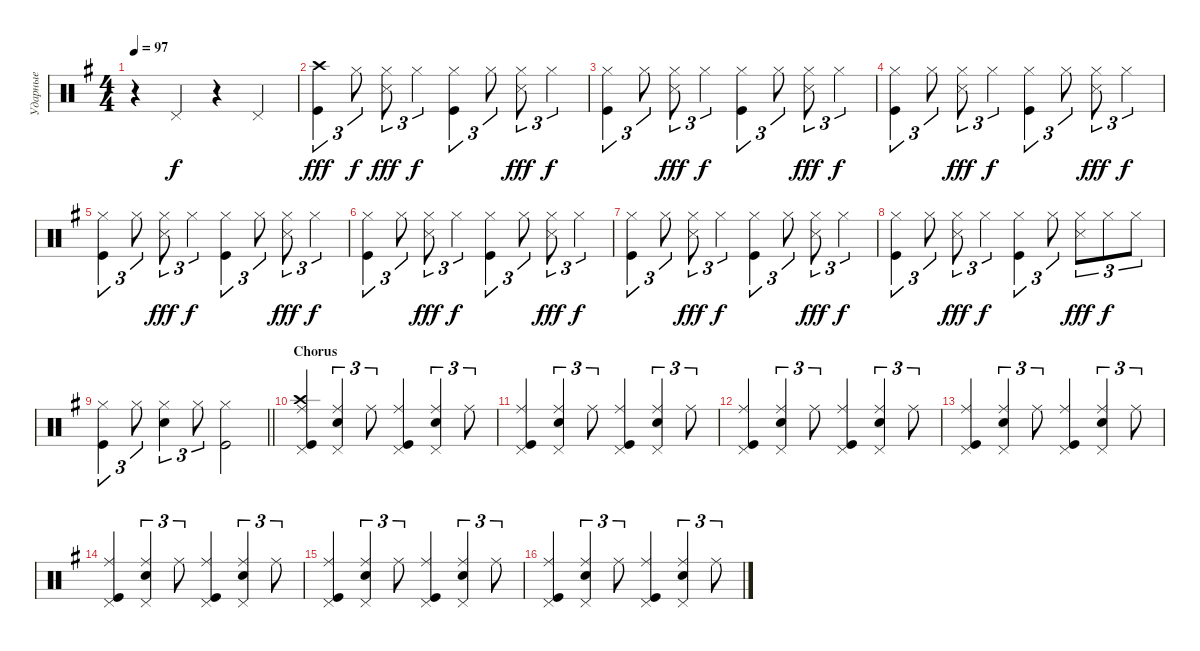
\track ("Ударные" "Ударные") {instrument percussion}
\staff {score}
\articulation defaults
\ts (4 4)
\tempo 97
\clef neutral
\ks eminor
r.4{dy f} "Pedal Hi-Hat (hit)".4 r.4 "Pedal Hi-Hat (hit)".4 |
("Crash high (hit)" "Kick (hit)").4{tu (3 2) dy fff} "Hi-Hat (closed)".8{tu (3 2) dy f} ("Hi-Hat (closed)" "Snare (side stick) 3").8{tu (3 2) dy fff} "Hi-Hat (closed)".4{tu (3 2) dy f} ("Hi-Hat (closed)" "Kick (hit)").4{tu (3 2)} "Hi-Hat (closed)".8{tu (3 2)} ("Hi-Hat (closed)" "Snare (side stick) 3").8{tu (3 2) dy fff} "Hi-Hat (closed)".4{tu (3 2) dy f} |
("Hi-Hat (closed)" "Kick (hit)").4{tu (3 2)} "Hi-Hat (closed)".8{tu (3 2)} ("Hi-Hat (closed)" "Snare (side stick) 3").8{tu (3 2) dy fff} "Hi-Hat (closed)".4{tu (3 2) dy f} ("Hi-Hat (closed)" "Kick (hit)").4{tu (3 2)} "Hi-Hat (closed)".8{tu (3 2)} ("Hi-Hat (closed)" "Snare (side stick) 3").8{tu (3 2) dy fff} "Hi-Hat (closed)".4{tu (3 2) dy f} |
("Hi-Hat (closed)" "Kick (hit)").4{tu (3 2)} "Hi-Hat (closed)".8{tu (3 2)} ("Hi-Hat (closed)" "Snare (side stick) 3").8{tu (3 2) dy fff} "Hi-Hat (closed)".4{tu (3 2) dy f} ("Hi-Hat (closed)" "Kick (hit)").4{tu (3 2)} "Hi-Hat (closed)".8{tu (3 2)} ("Hi-Hat (closed)" "Snare (side stick) 3").8{tu (3 2) dy fff} "Hi-Hat (closed)".4{tu (3 2) dy f} |
("Hi-Hat (closed)" "Kick (hit)").4{tu (3 2)} "Hi-Hat (closed)".8{tu (3 2)} ("Hi-Hat (closed)" "Snare (side stick) 3").8{tu (3 2) dy fff} "Hi-Hat (closed)".4{tu (3 2) dy f} ("Hi-Hat (closed)" "Kick (hit)").4{tu (3 2)} "Hi-Hat (closed)".8{tu (3 2)} ("Hi-Hat (closed)" "Snare (side stick) 3").8{tu (3 2) dy fff} "Hi-Hat (closed)".4{tu (3 2) dy f} |
("Hi-Hat (closed)" "Kick (hit)").4{tu (3 2)} "Hi-Hat (closed)".8{tu (3 2)} ("Hi-Hat (closed)" "Snare (side stick) 3").8{tu (3 2) dy fff} "Hi-Hat (closed)".4{tu (3 2) dy f} ("Hi-Hat (closed)" "Kick (hit)").4{tu (3 2)} "Hi-Hat (closed)".8{tu (3 2)} ("Hi-Hat (closed)" "Snare (side stick) 3").8{tu (3 2) dy fff} "Hi-Hat (closed)".4{tu (3 2) dy f} |
("Hi-Hat (closed)" "Kick (hit)").4{tu (3 2)} "Hi-Hat (closed)".8{tu (3 2)} ("Hi-Hat (closed)" "Snare (side stick) 3").8{tu (3 2) dy fff} "Hi-Hat (closed)".4{tu (3 2) dy f} ("Hi-Hat (closed)" "Kick (hit)").4{tu (3 2)} "Hi-Hat (closed)".8{tu (3 2)} ("Hi-Hat (closed)" "Snare (side stick) 3").8{tu (3 2) dy fff} "Hi-Hat (closed)".4{tu (3 2) dy f} |
("Hi-Hat (closed)" "Kick (hit)").4{tu (3 2)} "Hi-Hat (closed)".8{tu (3 2)} ("Hi-Hat (closed)" "Snare (side stick) 3").8{tu (3 2) dy fff} "Hi-Hat (closed)".4{tu (3 2) dy f} ("Hi-Hat (closed)" "Kick (hit)").4{tu (3 2)} "Hi-Hat (closed)".8{tu (3 2)} ("Hi-Hat (closed)" "Snare (side stick) 3").8{tu (3 2) dy fff} "Hi-Hat (closed)".8{tu (3 2) dy f} "Hi-Hat (closed)".8{tu (3 2)} |
\barLineRight lightlight
("Hi-Hat (closed)" "Kick (hit)").4{tu (3 2)} "Hi-Hat (closed)".8{tu (3 2)} ("Snare (hit) 2" "Hi-Hat (closed)").4{tu (3 2)} "Hi-Hat (closed)".8{tu (3 2)} ("Hi-Hat (closed)" "Kick (hit)").2 |
\section ("" "Chorus")
("Kick (hit)" "Ride (middle)" "Pedal Hi-Hat (hit)" "Crash high (hit)").4 ("Snare (hit) 2" "Ride (middle)" "Pedal Hi-Hat (hit)").4{tu (3 2)} "Ride (middle)".8{tu (3 2)} ("Kick (hit)" "Ride (middle)" "Pedal Hi-Hat (hit)").4 ("Snare (hit) 2" "Ride (middle)" "Pedal Hi-Hat (hit)").4{tu (3 2)} "Ride (middle)".8{tu (3 2)} |
("Kick (hit)" "Ride (middle)" "Pedal Hi-Hat (hit)").4 ("Snare (hit) 2" "Ride (middle)" "Pedal Hi-Hat (hit)").4{tu (3 2)} "Ride (middle)".8{tu (3 2)} ("Kick (hit)" "Ride (middle)" "Pedal Hi-Hat (hit)").4 ("Snare (hit) 2" "Ride (middle)" "Pedal Hi-Hat (hit)").4{tu (3 2)} "Ride (middle)".8{tu (3 2)} |
("Kick (hit)" "Ride (middle)" "Pedal Hi-Hat (hit)").4 ("Snare (hit) 2" "Ride (middle)" "Pedal Hi-Hat (hit)").4{tu (3 2)} "Ride (middle)".8{tu (3 2)} ("Kick (hit)" "Ride (middle)" "Pedal Hi-Hat (hit)").4 ("Snare (hit) 2" "Ride (middle)" "Pedal Hi-Hat (hit)").4{tu (3 2)} "Ride (middle)".8{tu (3 2)} |
("Kick (hit)" "Ride (middle)" "Pedal Hi-Hat (hit)").4 ("Snare (hit) 2" "Ride (middle)" "Pedal Hi-Hat (hit)").4{tu (3 2)} "Ride (middle)".8{tu (3 2)} ("Kick (hit)" "Ride (middle)" "Pedal Hi-Hat (hit)").4 ("Snare (hit) 2" "Ride (middle)" "Pedal Hi-Hat (hit)").4{tu (3 2)} "Ride (middle)".8{tu (3 2)} |
("Kick (hit)" "Ride (middle)" "Pedal Hi-Hat (hit)").4 ("Snare (hit) 2" "Ride (middle)" "Pedal Hi-Hat (hit)").4{tu (3 2)} "Ride (middle)".8{tu (3 2)} ("Kick (hit)" "Ride (middle)" "Pedal Hi-Hat (hit)").4 ("Snare (hit) 2" "Ride (middle)" "Pedal Hi-Hat (hit)").4{tu (3 2)} "Ride (middle)".8{tu (3 2)} |
("Kick (hit)" "Ride (middle)" "Pedal Hi-Hat (hit)").4 ("Snare (hit) 2" "Ride (middle)" "Pedal Hi-Hat (hit)").4{tu (3 2)} "Ride (middle)".8{tu (3 2)} ("Kick (hit)" "Ride (middle)" "Pedal Hi-Hat (hit)").4 ("Snare (hit) 2" "Ride (middle)" "Pedal Hi-Hat (hit)").4{tu (3 2)} "Ride (middle)".8{tu (3 2)} |
("Kick (hit)" "Ride (middle)" "Pedal Hi-Hat (hit)").4 ("Snare (hit) 2" "Ride (middle)" "Pedal Hi-Hat (hit)").4{tu (3 2)} "Ride (middle)".8{tu (3 2)} ("Kick (hit)" "Ride (middle)" "Pedal Hi-Hat (hit)").4 ("Snare (hit) 2" "Ride (middle)" "Pedal Hi-Hat (hit)").4{tu (3 2)} "Ride (middle)".8{tu (3 2)}
